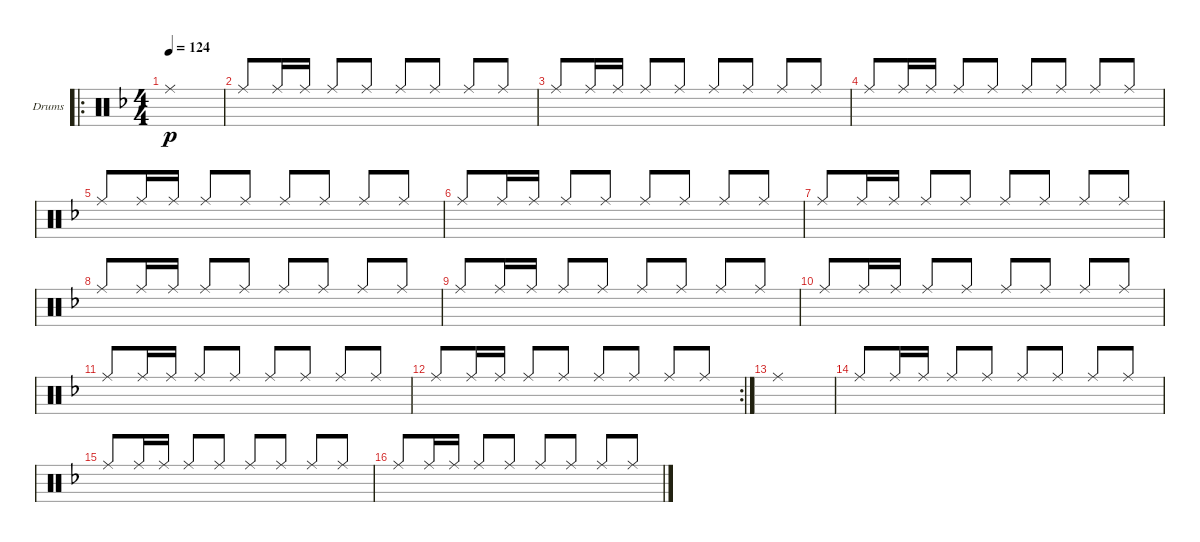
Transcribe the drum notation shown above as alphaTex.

\bracketExtendMode groupsimilarinstruments
\firstSystemTrackNameOrientation horizontal
\otherSystemsTrackNameOrientation horizontal
\track ("Ride Cymbal" "Drums") {instrument percussion}
\staff {score}
\articulation defaults
\ro
\ts (4 4)
\tempo 124
\clef neutral
\scale
0.527426
\ks dminor "Ride (middle)".1{dy p}
|
\scale
0.236287 "Ride (middle)".8{beam invert} "Ride (middle)".16 "Ride (middle)".16 "Ride (middle)".8{beam invert} "Ride (middle)".8 "Ride (middle)".8{beam invert} "Ride (middle)".8 "Ride (middle)".8{beam invert} "Ride (middle)".8 |
\scale
0.236287 "Ride (middle)".8{beam invert} "Ride (middle)".16 "Ride (middle)".16 "Ride (middle)".8{beam invert} "Ride (middle)".8 "Ride (middle)".8{beam invert} "Ride (middle)".8 "Ride (middle)".8{beam invert} "Ride (middle)".8 |
\scale
0.333333 "Ride (middle)".8{beam invert} "Ride (middle)".16 "Ride (middle)".16 "Ride (middle)".8{beam invert} "Ride (middle)".8 "Ride (middle)".8{beam invert} "Ride (middle)".8 "Ride (middle)".8{beam invert} "Ride (middle)".8 |
\scale
0.333333 "Ride (middle)".8{beam invert} "Ride (middle)".16 "Ride (middle)".16 "Ride (middle)".8{beam invert} "Ride (middle)".8 "Ride (middle)".8{beam invert} "Ride (middle)".8 "Ride (middle)".8{beam invert} "Ride (middle)".8 |
\scale
0.333333 "Ride (middle)".8{beam invert} "Ride (middle)".16 "Ride (middle)".16 "Ride (middle)".8{beam invert} "Ride (middle)".8 "Ride (middle)".8{beam invert} "Ride (middle)".8 "Ride (middle)".8{beam invert} "Ride (middle)".8 |
\scale
0.333333 "Ride (middle)".8{beam invert} "Ride (middle)".16 "Ride (middle)".16 "Ride (middle)".8{beam invert} "Ride (middle)".8 "Ride (middle)".8{beam invert} "Ride (middle)".8 "Ride (middle)".8{beam invert} "Ride (middle)".8 |
\scale
0.333333 "Ride (middle)".8{beam invert} "Ride (middle)".16 "Ride (middle)".16 "Ride (middle)".8{beam invert} "Ride (middle)".8 "Ride (middle)".8{beam invert} "Ride (middle)".8 "Ride (middle)".8{beam invert} "Ride (middle)".8 |
\scale
0.333333 "Ride (middle)".8{beam invert} "Ride (middle)".16 "Ride (middle)".16 "Ride (middle)".8{beam invert} "Ride (middle)".8 "Ride (middle)".8{beam invert} "Ride (middle)".8 "Ride (middle)".8{beam invert} "Ride (middle)".8 |
\scale
0.321839 "Ride (middle)".8{beam invert} "Ride (middle)".16 "Ride (middle)".16 "Ride (middle)".8{beam invert} "Ride (middle)".8 "Ride (middle)".8{beam invert} "Ride (middle)".8 "Ride (middle)".8{beam invert} "Ride (middle)".8 |
\scale
0.321839 "Ride (middle)".8{beam invert} "Ride (middle)".16 "Ride (middle)".16 "Ride (middle)".8{beam invert} "Ride (middle)".8 "Ride (middle)".8{beam invert} "Ride (middle)".8 "Ride (middle)".8{beam invert} "Ride (middle)".8 |
\rc 2
\scale
0.356322 "Ride (middle)".8{beam invert} "Ride (middle)".16 "Ride (middle)".16 "Ride (middle)".8{beam invert} "Ride (middle)".8 "Ride (middle)".8{beam invert} "Ride (middle)".8 "Ride (middle)".8{beam invert} "Ride (middle)".8 |
\scale
0.333333 "Ride (middle)".1{beam invert} |
\scale
0.333333 "Ride (middle)".8{beam invert} "Ride (middle)".16 "Ride (middle)".16 "Ride (middle)".8{beam invert} "Ride (middle)".8 "Ride (middle)".8{beam invert} "Ride (middle)".8 "Ride (middle)".8{beam invert} "Ride (middle)".8 |
\scale
0.333333 "Ride (middle)".8{beam invert} "Ride (middle)".16 "Ride (middle)".16 "Ride (middle)".8{beam invert} "Ride (middle)".8 "Ride (middle)".8{beam invert} "Ride (middle)".8 "Ride (middle)".8{beam invert} "Ride (middle)".8 |
\scale
0.333333 "Ride (middle)".8{beam invert} "Ride (middle)".16 "Ride (middle)".16 "Ride (middle)".8{beam invert} "Ride (middle)".8 "Ride (middle)".8{beam invert} "Ride (middle)".8 "Ride (middle)".8{beam invert} "Ride (middle)".8
